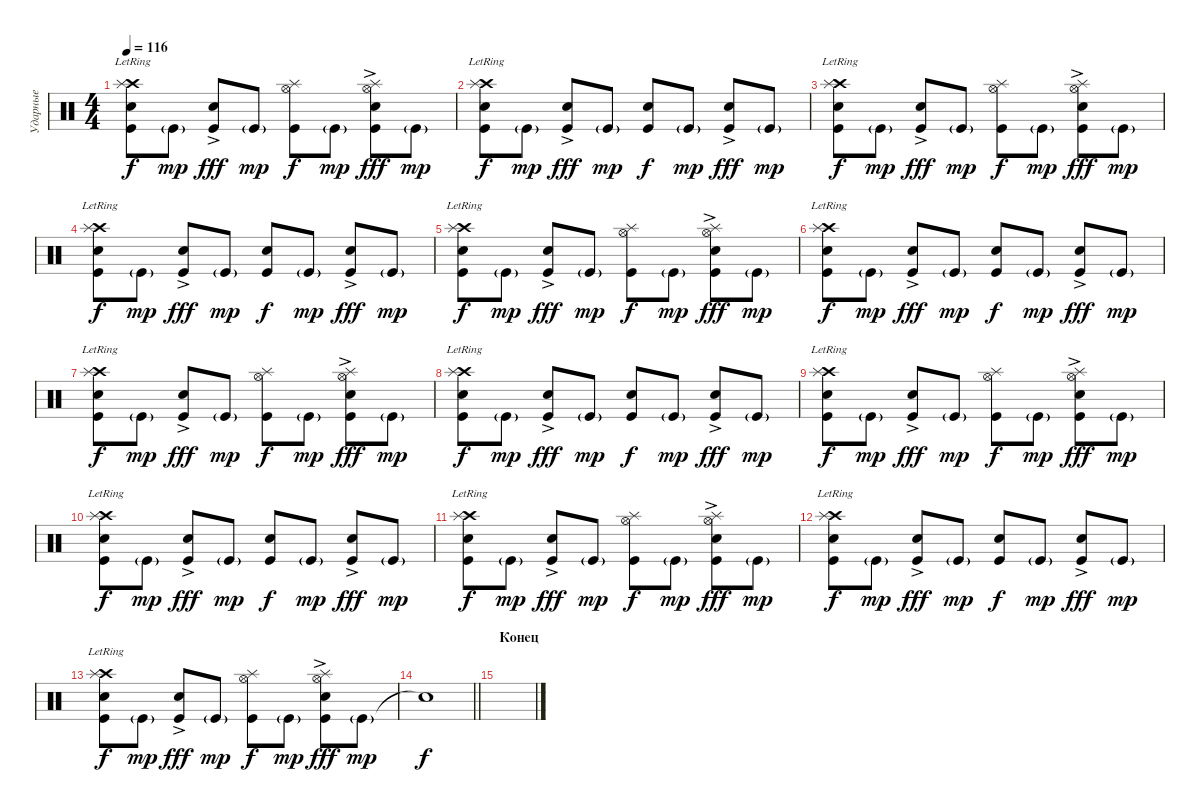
\track ("Ударные" "Ударные") {instrument percussion}
\staff {score}
\articulation defaults
\ts (4 4)
\tempo 116
\clef neutral
\ks c
("Crash high (hit)"{lr} "Splash (hit)" "Snare (hit) 2" "Kick (hit)"{lr}).8{dy f} "Kick (hit)"{g}.8{dy mp} ("Electric Snare (hit)"{ac} "Kick (hit)").8{dy fff} "Kick (hit)"{g}.8{dy mp} ("Splash (hit)" "Hi-Hat (open)" "Kick (hit)").8{dy f} "Kick (hit)"{g}.8{dy mp} ("Splash (hit)" "Hi-Hat (open)" "Electric Snare (hit)"{ac} "Kick (hit)").8{dy fff} "Kick (hit)"{g}.8{dy mp} |
("Crash high (hit)"{lr} "Splash (hit)" "Snare (hit) 2" "Kick (hit)"{lr}).8{dy f} "Kick (hit)"{g}.8{dy mp} ("Electric Snare (hit)"{ac} "Kick (hit)").8{dy fff} "Kick (hit)"{g}.8{dy mp} ("Snare (hit) 2" "Kick (hit)").8{dy f} "Kick (hit)"{g}.8{dy mp} ("Electric Snare (hit)"{ac} "Kick (hit)").8{dy fff} "Kick (hit)"{g}.8{dy mp} |
("Crash high (hit)"{lr} "Splash (hit)" "Snare (hit) 2" "Kick (hit)"{lr}).8{dy f} "Kick (hit)"{g}.8{dy mp} ("Electric Snare (hit)"{ac} "Kick (hit)").8{dy fff} "Kick (hit)"{g}.8{dy mp} ("Splash (hit)" "Hi-Hat (open)" "Kick (hit)").8{dy f} "Kick (hit)"{g}.8{dy mp} ("Splash (hit)" "Hi-Hat (open)" "Electric Snare (hit)"{ac} "Kick (hit)").8{dy fff} "Kick (hit)"{g}.8{dy mp} |
("Crash high (hit)"{lr} "Splash (hit)" "Snare (hit) 2" "Kick (hit)"{lr}).8{dy f} "Kick (hit)"{g}.8{dy mp} ("Electric Snare (hit)"{ac} "Kick (hit)").8{dy fff} "Kick (hit)"{g}.8{dy mp} ("Snare (hit) 2" "Kick (hit)").8{dy f} "Kick (hit)"{g}.8{dy mp} ("Electric Snare (hit)"{ac} "Kick (hit)").8{dy fff} "Kick (hit)"{g}.8{dy mp} |
("Crash high (hit)"{lr} "Splash (hit)" "Snare (hit) 2" "Kick (hit)"{lr}).8{dy f} "Kick (hit)"{g}.8{dy mp} ("Electric Snare (hit)"{ac} "Kick (hit)").8{dy fff} "Kick (hit)"{g}.8{dy mp} ("Splash (hit)" "Hi-Hat (open)" "Kick (hit)").8{dy f} "Kick (hit)"{g}.8{dy mp} ("Splash (hit)" "Hi-Hat (open)" "Electric Snare (hit)"{ac} "Kick (hit)").8{dy fff} "Kick (hit)"{g}.8{dy mp} |
("Crash high (hit)"{lr} "Splash (hit)" "Snare (hit) 2" "Kick (hit)"{lr}).8{dy f} "Kick (hit)"{g}.8{dy mp} ("Electric Snare (hit)"{ac} "Kick (hit)").8{dy fff} "Kick (hit)"{g}.8{dy mp} ("Snare (hit) 2" "Kick (hit)").8{dy f} "Kick (hit)"{g}.8{dy mp} ("Electric Snare (hit)"{ac} "Kick (hit)").8{dy fff} "Kick (hit)"{g}.8{dy mp} |
("Crash high (hit)"{lr} "Splash (hit)" "Snare (hit) 2" "Kick (hit)"{lr}).8{dy f} "Kick (hit)"{g}.8{dy mp} ("Electric Snare (hit)"{ac} "Kick (hit)").8{dy fff} "Kick (hit)"{g}.8{dy mp} ("Splash (hit)" "Hi-Hat (open)" "Kick (hit)").8{dy f} "Kick (hit)"{g}.8{dy mp} ("Splash (hit)" "Hi-Hat (open)" "Electric Snare (hit)"{ac} "Kick (hit)").8{dy fff} "Kick (hit)"{g}.8{dy mp} |
("Crash high (hit)"{lr} "Splash (hit)" "Snare (hit) 2" "Kick (hit)"{lr}).8{dy f} "Kick (hit)"{g}.8{dy mp} ("Electric Snare (hit)"{ac} "Kick (hit)").8{dy fff} "Kick (hit)"{g}.8{dy mp} ("Snare (hit) 2" "Kick (hit)").8{dy f} "Kick (hit)"{g}.8{dy mp} ("Electric Snare (hit)"{ac} "Kick (hit)").8{dy fff} "Kick (hit)"{g}.8{dy mp} |
("Crash high (hit)"{lr} "Splash (hit)" "Snare (hit) 2" "Kick (hit)"{lr}).8{dy f} "Kick (hit)"{g}.8{dy mp} ("Electric Snare (hit)"{ac} "Kick (hit)").8{dy fff} "Kick (hit)"{g}.8{dy mp} ("Splash (hit)" "Hi-Hat (open)" "Kick (hit)").8{dy f} "Kick (hit)"{g}.8{dy mp} ("Splash (hit)" "Hi-Hat (open)" "Electric Snare (hit)"{ac} "Kick (hit)").8{dy fff} "Kick (hit)"{g}.8{dy mp} |
("Crash high (hit)"{lr} "Splash (hit)" "Snare (hit) 2" "Kick (hit)"{lr}).8{dy f} "Kick (hit)"{g}.8{dy mp} ("Electric Snare (hit)"{ac} "Kick (hit)").8{dy fff} "Kick (hit)"{g}.8{dy mp} ("Snare (hit) 2" "Kick (hit)").8{dy f} "Kick (hit)"{g}.8{dy mp} ("Electric Snare (hit)"{ac} "Kick (hit)").8{dy fff} "Kick (hit)"{g}.8{dy mp} |
("Crash high (hit)"{lr} "Splash (hit)" "Snare (hit) 2" "Kick (hit)"{lr}).8{dy f} "Kick (hit)"{g}.8{dy mp} ("Electric Snare (hit)"{ac} "Kick (hit)").8{dy fff} "Kick (hit)"{g}.8{dy mp} ("Splash (hit)" "Hi-Hat (open)" "Kick (hit)").8{dy f} "Kick (hit)"{g}.8{dy mp} ("Splash (hit)" "Hi-Hat (open)" "Electric Snare (hit)"{ac} "Kick (hit)").8{dy fff} "Kick (hit)"{g}.8{dy mp} |
("Crash high (hit)"{lr} "Splash (hit)" "Snare (hit) 2" "Kick (hit)"{lr}).8{dy f} "Kick (hit)"{g}.8{dy mp} ("Electric Snare (hit)"{ac} "Kick (hit)").8{dy fff} "Kick (hit)"{g}.8{dy mp} ("Snare (hit) 2" "Kick (hit)").8{dy f} "Kick (hit)"{g}.8{dy mp} ("Electric Snare (hit)"{ac} "Kick (hit)").8{dy fff} "Kick (hit)"{g}.8{dy mp} |
("Crash high (hit)"{lr} "Splash (hit)" "Snare (hit) 2" "Kick (hit)"{lr}).8{dy f} "Kick (hit)"{g}.8{dy mp} ("Electric Snare (hit)"{ac} "Kick (hit)").8{dy fff} "Kick (hit)"{g}.8{dy mp} ("Splash (hit)" "Hi-Hat (open)" "Kick (hit)").8{dy f} "Kick (hit)"{g}.8{dy mp} ("Splash (hit)" "Hi-Hat (open)" "Electric Snare (hit)"{ac} "Kick (hit)").8{dy fff} "Kick (hit)"{g}.8{dy mp} |
\barLineRight lightlight "Snare (hit)"{t}.1{dy f}
|
\section ("" "Конец")
